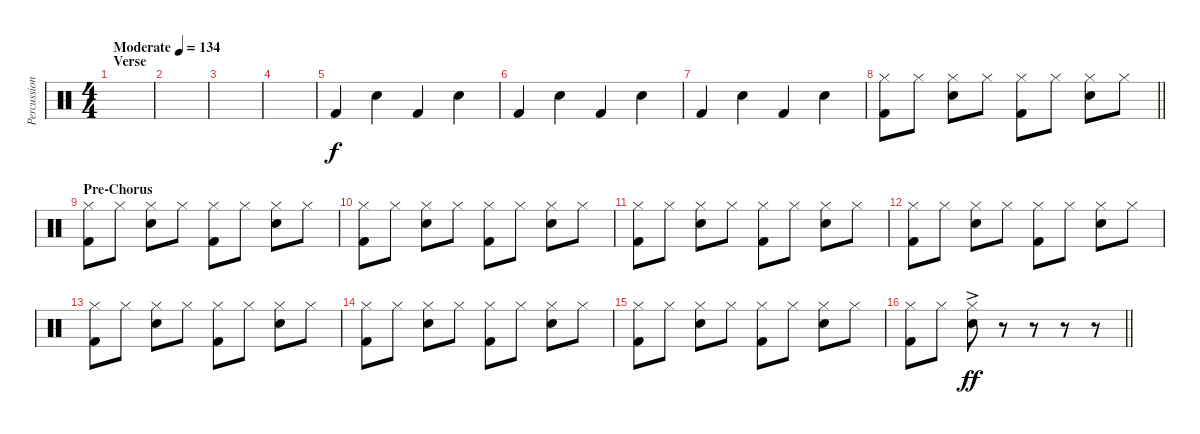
\track ("Percussion" "Percussion") {instrument percussion}
\staff {score}
\articulation defaults
\ts (4 4)
\section ("" "Verse")
\tempo (134 "Moderate")
\clef neutral
\ks c
|
|
|
|
"Kick (hit) 2".4 "Snare (hit) 2".4 "Kick (hit) 2".4 "Snare (hit) 2".4 |
"Kick (hit) 2".4 "Snare (hit) 2".4 "Kick (hit) 2".4 "Snare (hit) 2".4 |
"Kick (hit) 2".4 "Snare (hit) 2".4 "Kick (hit) 2".4 "Snare (hit) 2".4 |
\barLineRight lightlight
("Hi-Hat (closed)" "Kick (hit) 2").8 "Hi-Hat (closed)".8 ("Hi-Hat (closed)" "Snare (hit) 2").8 "Hi-Hat (closed)".8 ("Hi-Hat (closed)" "Kick (hit) 2").8 "Hi-Hat (closed)".8 ("Hi-Hat (closed)" "Snare (hit) 2").8 "Hi-Hat (closed)".8 |
\section ("" "Pre-Chorus")
("Hi-Hat (closed)" "Kick (hit) 2").8 "Hi-Hat (closed)".8 ("Hi-Hat (closed)" "Snare (hit) 2").8 "Hi-Hat (closed)".8 ("Hi-Hat (closed)" "Kick (hit) 2").8 "Hi-Hat (closed)".8 ("Hi-Hat (closed)" "Snare (hit) 2").8 "Hi-Hat (closed)".8 |
("Hi-Hat (closed)" "Kick (hit) 2").8 "Hi-Hat (closed)".8 ("Hi-Hat (closed)" "Snare (hit) 2").8 "Hi-Hat (closed)".8 ("Hi-Hat (closed)" "Kick (hit) 2").8 "Hi-Hat (closed)".8 ("Hi-Hat (closed)" "Snare (hit) 2").8 "Hi-Hat (closed)".8 |
("Hi-Hat (closed)" "Kick (hit) 2").8 "Hi-Hat (closed)".8 ("Hi-Hat (closed)" "Snare (hit) 2").8 "Hi-Hat (closed)".8 ("Hi-Hat (closed)" "Kick (hit) 2").8 "Hi-Hat (closed)".8 ("Hi-Hat (closed)" "Snare (hit) 2").8 "Hi-Hat (closed)".8 |
("Hi-Hat (closed)" "Kick (hit) 2").8 "Hi-Hat (closed)".8 ("Hi-Hat (closed)" "Snare (hit) 2").8 "Hi-Hat (closed)".8 ("Hi-Hat (closed)" "Kick (hit) 2").8 "Hi-Hat (closed)".8 ("Hi-Hat (closed)" "Snare (hit) 2").8 "Hi-Hat (closed)".8 |
("Hi-Hat (closed)" "Kick (hit) 2").8 "Hi-Hat (closed)".8 ("Hi-Hat (closed)" "Snare (hit) 2").8 "Hi-Hat (closed)".8 ("Hi-Hat (closed)" "Kick (hit) 2").8 "Hi-Hat (closed)".8 ("Hi-Hat (closed)" "Snare (hit) 2").8 "Hi-Hat (closed)".8 |
("Hi-Hat (closed)" "Kick (hit) 2").8 "Hi-Hat (closed)".8 ("Hi-Hat (closed)" "Snare (hit) 2").8 "Hi-Hat (closed)".8 ("Hi-Hat (closed)" "Kick (hit) 2").8 "Hi-Hat (closed)".8 ("Hi-Hat (closed)" "Snare (hit) 2").8 "Hi-Hat (closed)".8 |
("Hi-Hat (closed)" "Kick (hit) 2").8 "Hi-Hat (closed)".8 ("Hi-Hat (closed)" "Snare (hit) 2").8 "Hi-Hat (closed)".8 ("Hi-Hat (closed)" "Kick (hit) 2").8 "Hi-Hat (closed)".8 ("Hi-Hat (closed)" "Snare (hit) 2").8 "Hi-Hat (closed)".8 |
\barLineRight lightlight
("Hi-Hat (closed)" "Kick (hit) 2").8 "Hi-Hat (closed)".8 ("Hi-Hat (closed)"{ac} "Snare (hit) 2"{ac}).8{dy ff} r.8 r.8 r.8 r.8
